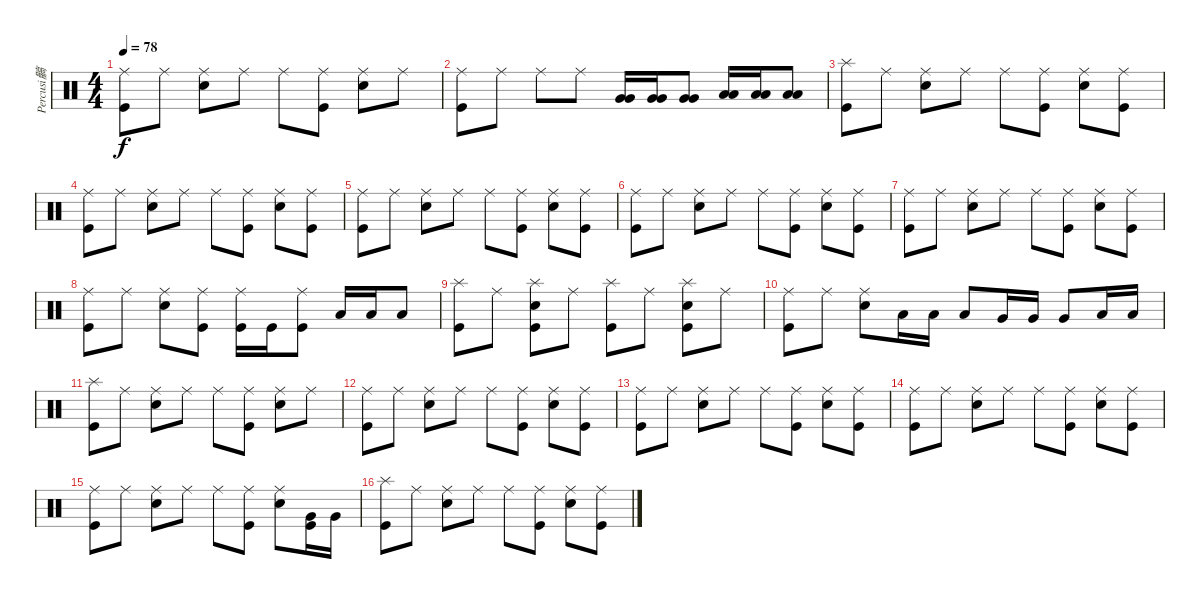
\track ("Percusi髇" "Percusi髇") {instrument percussion}
\staff {score}
\articulation defaults
\ts (4 4)
\tempo 78
\clef neutral
\ks c
("Ride (middle)" "Kick (hit)").8{dy f} "Ride (middle)".8 ("Ride (middle)" "Snare (hit) 2").8 "Ride (middle)".8 "Ride (middle)".8 ("Ride (middle)" "Kick (hit)").8 ("Ride (middle)" "Snare (hit) 2").8 "Ride (middle)".8 |
("Ride (middle)" "Kick (hit)").8 "Ride (middle)".8 "Ride (middle)".8 "Ride (middle)".8 ("Very Low Tom (hit)" "Very Low Tom (hit)").16 ("Very Low Tom (hit)" "Very Low Tom (hit)").16 ("Very Low Tom (hit)" "Very Low Tom (hit)").8 ("Low Floor Tom (hit)" "Low Floor Tom (hit)").16 ("Low Floor Tom (hit)" "Low Floor Tom (hit)").16 ("Low Floor Tom (hit)" "Low Floor Tom (hit)").8 |
("Splash (hit)" "Kick (hit)").8 "Ride (middle)".8 ("Ride (middle)" "Snare (hit) 2").8 "Ride (middle)".8 "Ride (middle)".8 ("Ride (middle)" "Kick (hit)").8 ("Ride (middle)" "Snare (hit) 2").8 ("Ride (middle)" "Kick (hit)").8 |
("Ride (middle)" "Kick (hit)").8 "Ride (middle)".8 ("Ride (middle)" "Snare (hit) 2").8 "Ride (middle)".8 "Ride (middle)".8 ("Ride (middle)" "Kick (hit)").8 ("Ride (middle)" "Snare (hit) 2").8 ("Ride (middle)" "Kick (hit)").8 |
("Ride (middle)" "Kick (hit)").8 "Ride (middle)".8 ("Ride (middle)" "Snare (hit) 2").8 "Ride (middle)".8 "Ride (middle)".8 ("Ride (middle)" "Kick (hit)").8 ("Ride (middle)" "Snare (hit) 2").8 ("Ride (middle)" "Kick (hit)").8 |
("Ride (middle)" "Kick (hit)").8 "Ride (middle)".8 ("Ride (middle)" "Snare (hit) 2").8 "Ride (middle)".8 "Ride (middle)".8 ("Ride (middle)" "Kick (hit)").8 ("Ride (middle)" "Snare (hit) 2").8 ("Ride (middle)" "Kick (hit)").8 |
("Ride (middle)" "Kick (hit)").8 "Ride (middle)".8 ("Ride (middle)" "Snare (hit) 2").8 "Ride (middle)".8 "Ride (middle)".8 ("Ride (middle)" "Kick (hit)").8 ("Ride (middle)" "Snare (hit) 2").8 ("Ride (middle)" "Kick (hit)").8 |
("Ride (middle)" "Kick (hit)").8 "Ride (middle)".8 ("Ride (middle)" "Snare (hit) 2").8 ("Ride (middle)" "Kick (hit)").8 ("Ride (middle)" "Kick (hit)").16 "Kick (hit)".16 ("Ride (middle)" "Kick (hit)").8 "Low Tom (hit)".16 "Low Tom (hit)".16 "Low Tom (hit)".8 |
("Splash (hit)" "Kick (hit)").8 "Ride (middle)".8 ("Splash (hit)" "Snare (hit) 2" "Kick (hit)").8 "Ride (middle)".8 ("Splash (hit)" "Kick (hit)").8 "Ride (middle)".8 ("Splash (hit)" "Snare (hit) 2" "Kick (hit)").8 "Ride (middle)".8 |
("Ride (middle)" "Kick (hit)").8 "Ride (middle)".8 ("Ride (middle)" "Snare (hit) 2").8 "Low Tom (hit)".16 "Low Tom (hit)".16 "Low Tom (hit)".8 "Very Low Tom (hit)".16 "Very Low Tom (hit)".16 "Very Low Tom (hit)".8 "Low Floor Tom (hit)".16 "Low Floor Tom (hit)".16 |
("Splash (hit)" "Kick (hit)").8 "Ride (middle)".8 ("Ride (middle)" "Snare (hit) 2").8 "Ride (middle)".8 "Ride (middle)".8 ("Ride (middle)" "Kick (hit)").8 ("Ride (middle)" "Snare (hit) 2").8 "Ride (middle)".8 |
("Ride (middle)" "Kick (hit)").8 "Ride (middle)".8 ("Ride (middle)" "Snare (hit) 2").8 "Ride (middle)".8 "Ride (middle)".8 ("Ride (middle)" "Kick (hit)").8 ("Ride (middle)" "Snare (hit) 2").8 ("Ride (middle)" "Kick (hit)").8 |
("Ride (middle)" "Kick (hit)").8 "Ride (middle)".8 ("Ride (middle)" "Snare (hit) 2").8 "Ride (middle)".8 "Ride (middle)".8 ("Ride (middle)" "Kick (hit)").8 ("Ride (middle)" "Snare (hit) 2").8 ("Ride (middle)" "Kick (hit)").8 |
("Ride (middle)" "Kick (hit)").8 "Ride (middle)".8 ("Ride (middle)" "Snare (hit) 2").8 "Ride (middle)".8 "Ride (middle)".8 ("Ride (middle)" "Kick (hit)").8 ("Ride (middle)" "Snare (hit) 2").8 ("Ride (middle)" "Kick (hit)").8 |
("Ride (middle)" "Kick (hit)").8 "Ride (middle)".8 ("Ride (middle)" "Snare (hit) 2").8 "Ride (middle)".8 "Ride (middle)".8 ("Ride (middle)" "Kick (hit)").8 ("Ride (middle)" "Snare (hit) 2").8 ("Very Low Tom (hit)" "Kick (hit)").16 "Very Low Tom (hit)".16 |
("Splash (hit)" "Kick (hit)").8 "Ride (middle)".8 ("Ride (middle)" "Snare (hit) 2").8 "Ride (middle)".8 "Ride (middle)".8 ("Ride (middle)" "Kick (hit)").8 ("Ride (middle)" "Snare (hit) 2").8 ("Ride (middle)" "Kick (hit)").8
